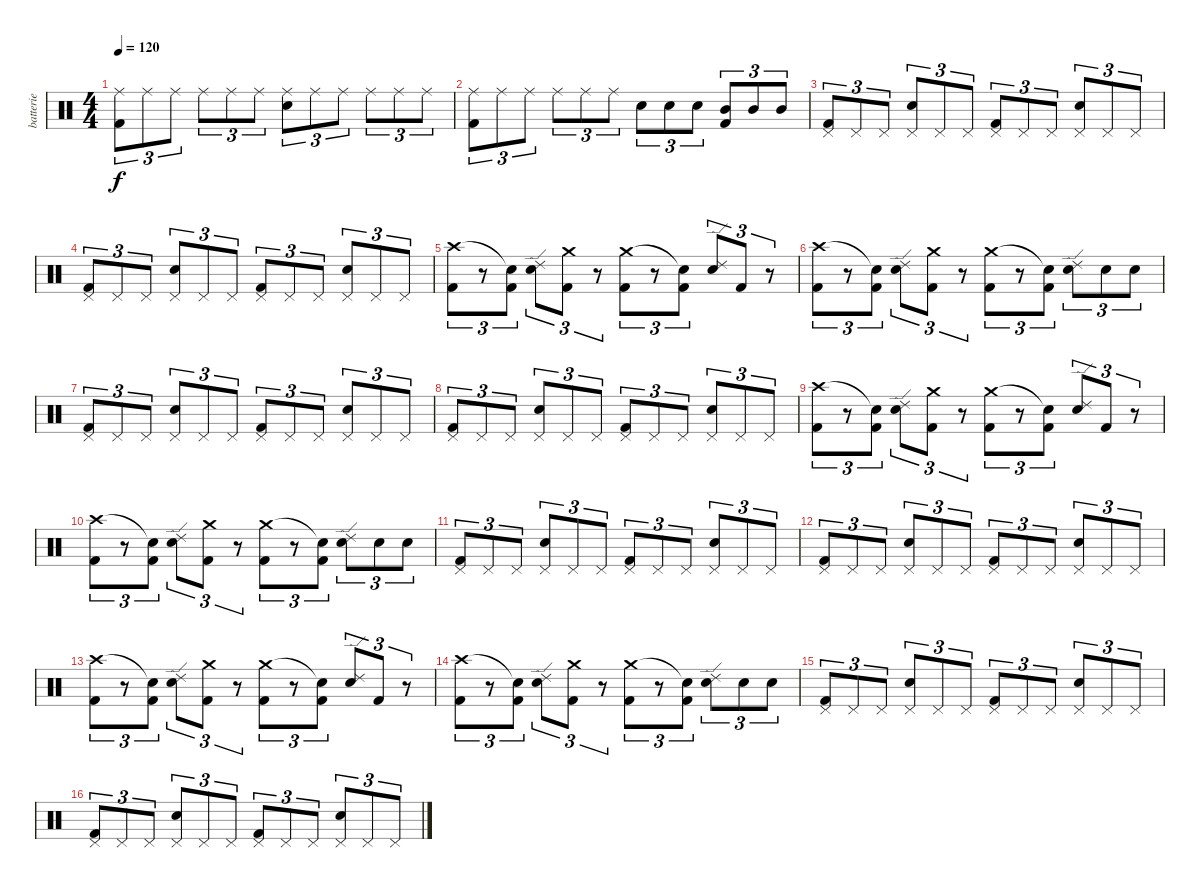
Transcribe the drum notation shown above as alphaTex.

\track ("batterie" "batterie") {instrument percussion}
\staff {score}
\articulation defaults
\ts (4 4)
\tempo 120
\clef neutral
\ks c
("Kick (hit) 2" "Ride (middle)").8{tu (3 2) dy f} "Ride (middle)".8{tu (3 2)} "Ride (middle)".8{tu (3 2)} "Ride (middle)".8{tu (3 2)} "Ride (middle)".8{tu (3 2)} "Ride (middle)".8{tu (3 2)} ("Snare (hit) 2" "Ride (middle)").8{tu (3 2)} "Ride (middle)".8{tu (3 2)} "Ride (middle)".8{tu (3 2)} "Ride (middle)".8{tu (3 2)} "Ride (middle)".8{tu (3 2)} "Ride (middle)".8{tu (3 2)} |
("Kick (hit) 2" "Ride (middle)").8{tu (3 2)} "Ride (middle)".8{tu (3 2)} "Ride (middle)".8{tu (3 2)} "Ride (middle)".8{tu (3 2)} "Ride (middle)".8{tu (3 2)} "Ride (middle)".8{tu (3 2)} "Snare (hit) 2".8{tu (3 2)} "Snare (hit) 2".8{tu (3 2)} "Snare (hit) 2".8{tu (3 2)} ("Mid Tom (hit)" "Kick (hit) 2").8{tu (3 2)} "Mid Tom (hit)".8{tu (3 2)} "Mid Tom (hit)".8{tu (3 2)} |
("Kick (hit) 2" "Pedal Hi-Hat (hit)").8{tu (3 2)} "Pedal Hi-Hat (hit)".8{tu (3 2)} "Pedal Hi-Hat (hit)".8{tu (3 2)} ("Snare (hit) 2" "Pedal Hi-Hat (hit)").8{tu (3 2)} "Pedal Hi-Hat (hit)".8{tu (3 2)} "Pedal Hi-Hat (hit)".8{tu (3 2)} ("Kick (hit) 2" "Pedal Hi-Hat (hit)").8{tu (3 2)} "Pedal Hi-Hat (hit)".8{tu (3 2)} "Pedal Hi-Hat (hit)".8{tu (3 2)} ("Snare (hit) 2" "Pedal Hi-Hat (hit)").8{tu (3 2)} "Pedal Hi-Hat (hit)".8{tu (3 2)} "Pedal Hi-Hat (hit)".8{tu (3 2)} |
("Kick (hit) 2" "Pedal Hi-Hat (hit)").8{tu (3 2)} "Pedal Hi-Hat (hit)".8{tu (3 2)} "Pedal Hi-Hat (hit)".8{tu (3 2)} ("Snare (hit) 2" "Pedal Hi-Hat (hit)").8{tu (3 2)} "Pedal Hi-Hat (hit)".8{tu (3 2)} "Pedal Hi-Hat (hit)".8{tu (3 2)} ("Kick (hit) 2" "Pedal Hi-Hat (hit)").8{tu (3 2)} "Pedal Hi-Hat (hit)".8{tu (3 2)} "Pedal Hi-Hat (hit)".8{tu (3 2)} ("Snare (hit) 2" "Pedal Hi-Hat (hit)").8{tu (3 2)} "Pedal Hi-Hat (hit)".8{tu (3 2)} "Pedal Hi-Hat (hit)".8{tu (3 2)} |
("Crash high (hit)" "Kick (hit) 2").8{tu (3 2)} r.8{tu (3 2)} ("Snare (hit)"{t} "Kick (hit) 2").8{tu (3 2)} ("Snare (hit) 2" "Ride (edge) 2").8{tu (3 2)} ("Crash medium (hit)" "Kick (hit) 2").8{tu (3 2)} r.8{tu (3 2)} ("Crash medium (hit)" "Kick (hit) 2").8{tu (3 2)} r.8{tu (3 2)} ("Snare (hit)"{t} "Kick (hit) 2").8{tu (3 2)} ("Snare (hit) 2" "Ride (edge) 2").8{tu (3 2)} "Kick (hit) 2".8{tu (3 2)} r.8{tu (3 2)} |
("Crash high (hit)" "Kick (hit) 2").8{tu (3 2)} r.8{tu (3 2)} ("Snare (hit)"{t} "Kick (hit) 2").8{tu (3 2)} ("Snare (hit) 2" "Ride (edge) 2").8{tu (3 2)} ("Crash medium (hit)" "Kick (hit) 2").8{tu (3 2)} r.8{tu (3 2)} ("Crash medium (hit)" "Kick (hit) 2").8{tu (3 2)} r.8{tu (3 2)} ("Snare (hit)"{t} "Kick (hit) 2").8{tu (3 2)} ("Snare (hit) 2" "Ride (edge) 2").8{tu (3 2)} "Snare (hit) 2".8{tu (3 2)} "Snare (hit) 2".8{tu (3 2)} |
("Kick (hit) 2" "Pedal Hi-Hat (hit)").8{tu (3 2)} "Pedal Hi-Hat (hit)".8{tu (3 2)} "Pedal Hi-Hat (hit)".8{tu (3 2)} ("Snare (hit) 2" "Pedal Hi-Hat (hit)").8{tu (3 2)} "Pedal Hi-Hat (hit)".8{tu (3 2)} "Pedal Hi-Hat (hit)".8{tu (3 2)} ("Kick (hit) 2" "Pedal Hi-Hat (hit)").8{tu (3 2)} "Pedal Hi-Hat (hit)".8{tu (3 2)} "Pedal Hi-Hat (hit)".8{tu (3 2)} ("Snare (hit) 2" "Pedal Hi-Hat (hit)").8{tu (3 2)} "Pedal Hi-Hat (hit)".8{tu (3 2)} "Pedal Hi-Hat (hit)".8{tu (3 2)} |
("Kick (hit) 2" "Pedal Hi-Hat (hit)").8{tu (3 2)} "Pedal Hi-Hat (hit)".8{tu (3 2)} "Pedal Hi-Hat (hit)".8{tu (3 2)} ("Snare (hit) 2" "Pedal Hi-Hat (hit)").8{tu (3 2)} "Pedal Hi-Hat (hit)".8{tu (3 2)} "Pedal Hi-Hat (hit)".8{tu (3 2)} ("Kick (hit) 2" "Pedal Hi-Hat (hit)").8{tu (3 2)} "Pedal Hi-Hat (hit)".8{tu (3 2)} "Pedal Hi-Hat (hit)".8{tu (3 2)} ("Snare (hit) 2" "Pedal Hi-Hat (hit)").8{tu (3 2)} "Pedal Hi-Hat (hit)".8{tu (3 2)} "Pedal Hi-Hat (hit)".8{tu (3 2)} |
("Crash high (hit)" "Kick (hit) 2").8{tu (3 2)} r.8{tu (3 2)} ("Snare (hit)"{t} "Kick (hit) 2").8{tu (3 2)} ("Snare (hit) 2" "Ride (edge) 2").8{tu (3 2)} ("Crash medium (hit)" "Kick (hit) 2").8{tu (3 2)} r.8{tu (3 2)} ("Crash medium (hit)" "Kick (hit) 2").8{tu (3 2)} r.8{tu (3 2)} ("Snare (hit)"{t} "Kick (hit) 2").8{tu (3 2)} ("Snare (hit) 2" "Ride (edge) 2").8{tu (3 2)} "Kick (hit) 2".8{tu (3 2)} r.8{tu (3 2)} |
("Crash high (hit)" "Kick (hit) 2").8{tu (3 2)} r.8{tu (3 2)} ("Snare (hit)"{t} "Kick (hit) 2").8{tu (3 2)} ("Snare (hit) 2" "Ride (edge) 2").8{tu (3 2)} ("Crash medium (hit)" "Kick (hit) 2").8{tu (3 2)} r.8{tu (3 2)} ("Crash medium (hit)" "Kick (hit) 2").8{tu (3 2)} r.8{tu (3 2)} ("Snare (hit)"{t} "Kick (hit) 2").8{tu (3 2)} ("Snare (hit) 2" "Ride (edge) 2").8{tu (3 2)} "Snare (hit) 2".8{tu (3 2)} "Snare (hit) 2".8{tu (3 2)} |
("Kick (hit) 2" "Pedal Hi-Hat (hit)").8{tu (3 2)} "Pedal Hi-Hat (hit)".8{tu (3 2)} "Pedal Hi-Hat (hit)".8{tu (3 2)} ("Snare (hit) 2" "Pedal Hi-Hat (hit)").8{tu (3 2)} "Pedal Hi-Hat (hit)".8{tu (3 2)} "Pedal Hi-Hat (hit)".8{tu (3 2)} ("Kick (hit) 2" "Pedal Hi-Hat (hit)").8{tu (3 2)} "Pedal Hi-Hat (hit)".8{tu (3 2)} "Pedal Hi-Hat (hit)".8{tu (3 2)} ("Snare (hit) 2" "Pedal Hi-Hat (hit)").8{tu (3 2)} "Pedal Hi-Hat (hit)".8{tu (3 2)} "Pedal Hi-Hat (hit)".8{tu (3 2)} |
("Kick (hit) 2" "Pedal Hi-Hat (hit)").8{tu (3 2)} "Pedal Hi-Hat (hit)".8{tu (3 2)} "Pedal Hi-Hat (hit)".8{tu (3 2)} ("Snare (hit) 2" "Pedal Hi-Hat (hit)").8{tu (3 2)} "Pedal Hi-Hat (hit)".8{tu (3 2)} "Pedal Hi-Hat (hit)".8{tu (3 2)} ("Kick (hit) 2" "Pedal Hi-Hat (hit)").8{tu (3 2)} "Pedal Hi-Hat (hit)".8{tu (3 2)} "Pedal Hi-Hat (hit)".8{tu (3 2)} ("Snare (hit) 2" "Pedal Hi-Hat (hit)").8{tu (3 2)} "Pedal Hi-Hat (hit)".8{tu (3 2)} "Pedal Hi-Hat (hit)".8{tu (3 2)} |
("Crash high (hit)" "Kick (hit) 2").8{tu (3 2)} r.8{tu (3 2)} ("Snare (hit)"{t} "Kick (hit) 2").8{tu (3 2)} ("Snare (hit) 2" "Ride (edge) 2").8{tu (3 2)} ("Crash medium (hit)" "Kick (hit) 2").8{tu (3 2)} r.8{tu (3 2)} ("Crash medium (hit)" "Kick (hit) 2").8{tu (3 2)} r.8{tu (3 2)} ("Snare (hit)"{t} "Kick (hit) 2").8{tu (3 2)} ("Snare (hit) 2" "Ride (edge) 2").8{tu (3 2)} "Kick (hit) 2".8{tu (3 2)} r.8{tu (3 2)} |
("Crash high (hit)" "Kick (hit) 2").8{tu (3 2)} r.8{tu (3 2)} ("Snare (hit)"{t} "Kick (hit) 2").8{tu (3 2)} ("Snare (hit) 2" "Ride (edge) 2").8{tu (3 2)} ("Crash medium (hit)" "Kick (hit) 2").8{tu (3 2)} r.8{tu (3 2)} ("Crash medium (hit)" "Kick (hit) 2").8{tu (3 2)} r.8{tu (3 2)} ("Snare (hit)"{t} "Kick (hit) 2").8{tu (3 2)} ("Snare (hit) 2" "Ride (edge) 2").8{tu (3 2)} "Snare (hit) 2".8{tu (3 2)} "Snare (hit) 2".8{tu (3 2)} |
("Kick (hit) 2" "Pedal Hi-Hat (hit)").8{tu (3 2)} "Pedal Hi-Hat (hit)".8{tu (3 2)} "Pedal Hi-Hat (hit)".8{tu (3 2)} ("Snare (hit) 2" "Pedal Hi-Hat (hit)").8{tu (3 2)} "Pedal Hi-Hat (hit)".8{tu (3 2)} "Pedal Hi-Hat (hit)".8{tu (3 2)} ("Kick (hit) 2" "Pedal Hi-Hat (hit)").8{tu (3 2)} "Pedal Hi-Hat (hit)".8{tu (3 2)} "Pedal Hi-Hat (hit)".8{tu (3 2)} ("Snare (hit) 2" "Pedal Hi-Hat (hit)").8{tu (3 2)} "Pedal Hi-Hat (hit)".8{tu (3 2)} "Pedal Hi-Hat (hit)".8{tu (3 2)} |
("Kick (hit) 2" "Pedal Hi-Hat (hit)").8{tu (3 2)} "Pedal Hi-Hat (hit)".8{tu (3 2)} "Pedal Hi-Hat (hit)".8{tu (3 2)} ("Snare (hit) 2" "Pedal Hi-Hat (hit)").8{tu (3 2)} "Pedal Hi-Hat (hit)".8{tu (3 2)} "Pedal Hi-Hat (hit)".8{tu (3 2)} ("Kick (hit) 2" "Pedal Hi-Hat (hit)").8{tu (3 2)} "Pedal Hi-Hat (hit)".8{tu (3 2)} "Pedal Hi-Hat (hit)".8{tu (3 2)} ("Snare (hit) 2" "Pedal Hi-Hat (hit)").8{tu (3 2)} "Pedal Hi-Hat (hit)".8{tu (3 2)} "Pedal Hi-Hat (hit)".8{tu (3 2)}
